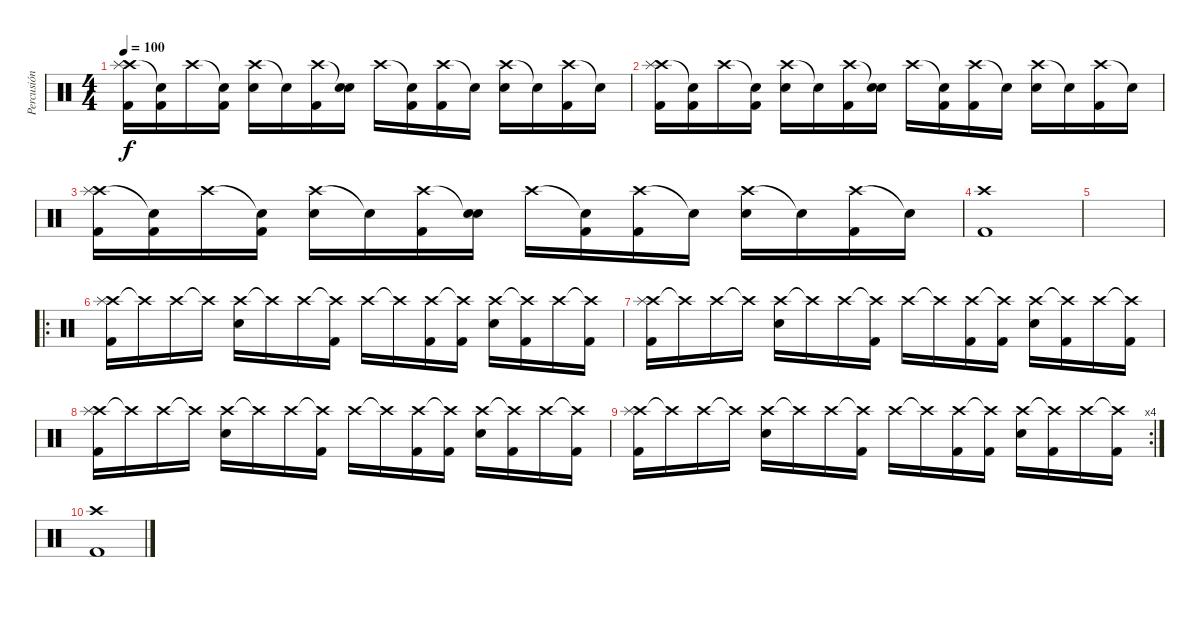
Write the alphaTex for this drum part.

\track ("Percusión" "Percusión") {instrument percussion}
\staff {score}
\articulation defaults
\ts (4 4)
\tempo 100
\clef neutral
\ks c
("Crash high (hit)" "Splash (hit)" "Kick (hit) 2").16{dy f} ("Snare (hit)"{t} "Kick (hit) 2").16 "Crash high (hit)".16 ("Snare (hit)"{t} "Kick (hit) 2").16 ("Crash high (hit)" "Electric Snare (hit)").16 "Snare (hit)"{t}.16 ("Crash high (hit)" "Kick (hit) 2").16 ("Snare (hit)"{t} "Electric Snare (hit)").16 "Crash high (hit)".16 ("Snare (hit)"{t} "Kick (hit) 2").16 ("Crash high (hit)" "Kick (hit) 2").16 "Snare (hit)"{t}.16 ("Crash high (hit)" "Electric Snare (hit)").16 "Snare (hit)"{t}.16 ("Crash high (hit)" "Kick (hit) 2").16 "Snare (hit)"{t}.16 |
("Crash high (hit)" "Splash (hit)" "Kick (hit) 2").16 ("Snare (hit)"{t} "Kick (hit) 2").16 "Crash high (hit)".16 ("Snare (hit)"{t} "Kick (hit) 2").16 ("Crash high (hit)" "Electric Snare (hit)").16 "Snare (hit)"{t}.16 ("Crash high (hit)" "Kick (hit) 2").16 ("Snare (hit)"{t} "Electric Snare (hit)").16 "Crash high (hit)".16 ("Snare (hit)"{t} "Kick (hit) 2").16 ("Crash high (hit)" "Kick (hit) 2").16 "Snare (hit)"{t}.16 ("Crash high (hit)" "Electric Snare (hit)").16 "Snare (hit)"{t}.16 ("Crash high (hit)" "Kick (hit) 2").16 "Snare (hit)"{t}.16 |
("Crash high (hit)" "Splash (hit)" "Kick (hit) 2").16 ("Snare (hit)"{t} "Kick (hit) 2").16 "Crash high (hit)".16 ("Snare (hit)"{t} "Kick (hit) 2").16 ("Crash high (hit)" "Electric Snare (hit)").16 "Snare (hit)"{t}.16 ("Crash high (hit)" "Kick (hit) 2").16 ("Snare (hit)"{t} "Electric Snare (hit)").16 "Crash high (hit)".16 ("Snare (hit)"{t} "Kick (hit) 2").16 ("Crash high (hit)" "Kick (hit) 2").16 "Snare (hit)"{t}.16 ("Crash high (hit)" "Electric Snare (hit)").16 "Snare (hit)"{t}.16 ("Crash high (hit)" "Kick (hit) 2").16 "Snare (hit)"{t}.16 |
("Crash high (hit)" "Kick (hit) 2").1 |
|
\ro
("Crash high (hit)" "Splash (hit)" "Kick (hit) 2").16 "Crash high (hit)"{t}.16 "Crash high (hit)".16 "Crash high (hit)"{t}.16 ("Crash high (hit)" "Electric Snare (hit)").16 "Crash high (hit)"{t}.16 "Crash high (hit)".16 ("Crash high (hit)"{t} "Kick (hit) 2").16 "Crash high (hit)".16 "Crash high (hit)"{t}.16 ("Crash high (hit)" "Kick (hit) 2").16 ("Crash high (hit)"{t} "Kick (hit) 2").16 ("Crash high (hit)" "Electric Snare (hit)").16 ("Crash high (hit)"{t} "Kick (hit) 2").16 "Crash high (hit)".16 ("Crash high (hit)"{t} "Kick (hit) 2").16 |
("Crash high (hit)" "Splash (hit)" "Kick (hit) 2").16 "Crash high (hit)"{t}.16 "Crash high (hit)".16 "Crash high (hit)"{t}.16 ("Crash high (hit)" "Electric Snare (hit)").16 "Crash high (hit)"{t}.16 "Crash high (hit)".16 ("Crash high (hit)"{t} "Kick (hit) 2").16 "Crash high (hit)".16 "Crash high (hit)"{t}.16 ("Crash high (hit)" "Kick (hit) 2").16 ("Crash high (hit)"{t} "Kick (hit) 2").16 ("Crash high (hit)" "Electric Snare (hit)").16 ("Crash high (hit)"{t} "Kick (hit) 2").16 "Crash high (hit)".16 ("Crash high (hit)"{t} "Kick (hit) 2").16 |
("Crash high (hit)" "Splash (hit)" "Kick (hit) 2").16 "Crash high (hit)"{t}.16 "Crash high (hit)".16 "Crash high (hit)"{t}.16 ("Crash high (hit)" "Electric Snare (hit)").16 "Crash high (hit)"{t}.16 "Crash high (hit)".16 ("Crash high (hit)"{t} "Kick (hit) 2").16 "Crash high (hit)".16 "Crash high (hit)"{t}.16 ("Crash high (hit)" "Kick (hit) 2").16 ("Crash high (hit)"{t} "Kick (hit) 2").16 ("Crash high (hit)" "Electric Snare (hit)").16 ("Crash high (hit)"{t} "Kick (hit) 2").16 "Crash high (hit)".16 ("Crash high (hit)"{t} "Kick (hit) 2").16 |
\rc 4
("Crash high (hit)" "Splash (hit)" "Kick (hit) 2").16 "Crash high (hit)"{t}.16 "Crash high (hit)".16 "Crash high (hit)"{t}.16 ("Crash high (hit)" "Electric Snare (hit)").16 "Crash high (hit)"{t}.16 "Crash high (hit)".16 ("Crash high (hit)"{t} "Kick (hit) 2").16 "Crash high (hit)".16 "Crash high (hit)"{t}.16 ("Crash high (hit)" "Kick (hit) 2").16 ("Crash high (hit)"{t} "Kick (hit) 2").16 ("Crash high (hit)" "Electric Snare (hit)").16 ("Crash high (hit)"{t} "Kick (hit) 2").16 "Crash high (hit)".16 ("Crash high (hit)"{t} "Kick (hit) 2").16 |
("Kick (hit) 2" "Crash high (hit)").1
